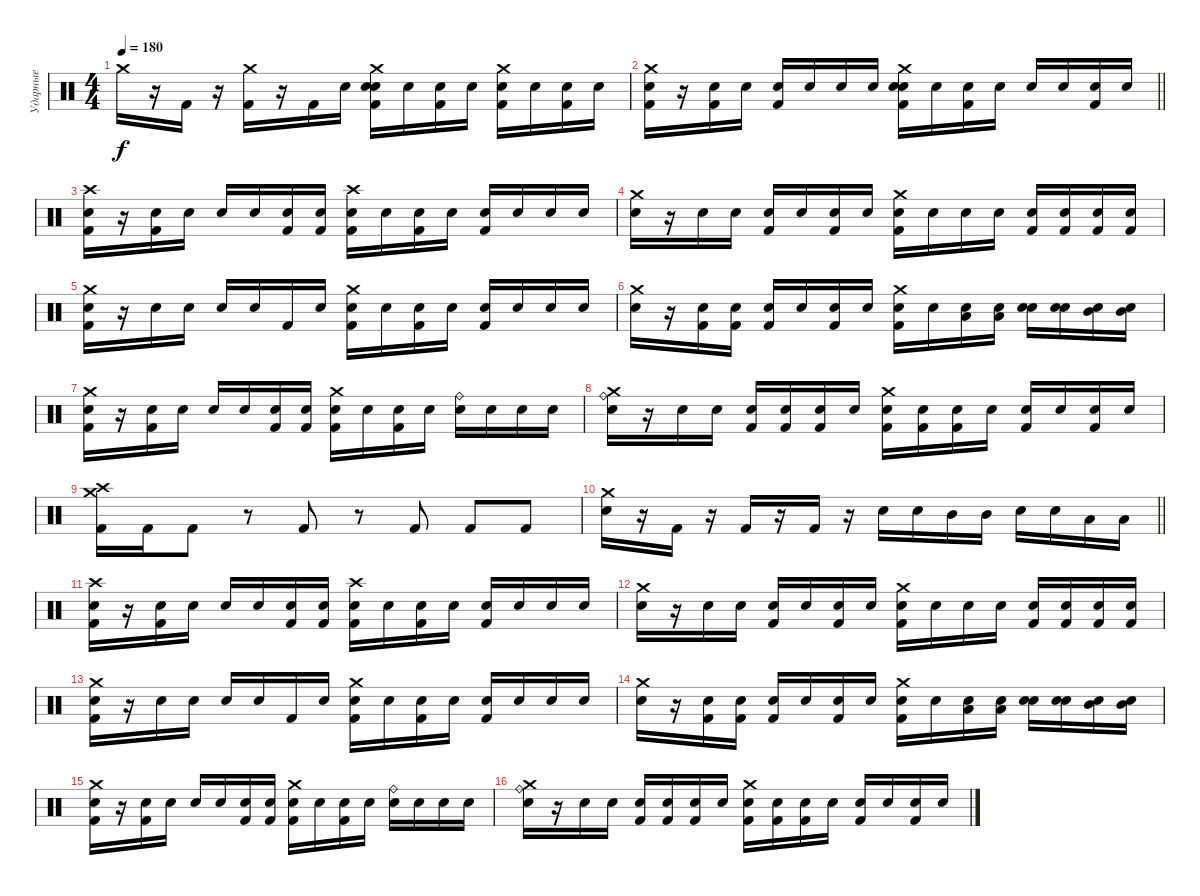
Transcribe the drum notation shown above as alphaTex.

\track ("Ударные" "Ударные") {instrument percussion}
\staff {score}
\articulation defaults
\ts (4 4)
\tempo 180
\clef neutral
\ks c "Crash medium (hit)".16{dy f}
r.16 "Kick (hit) 2".16 r.16 ("Crash medium (hit)" "Kick (hit) 2").16 r.16 "Kick (hit) 2".16 "Snare (hit)".16 ("Crash medium (hit)" "Electric Snare (hit)" "Snare (hit)" "Kick (hit) 2").16 "Snare (hit)".16 ("Snare (hit)" "Kick (hit) 2").16 "Snare (hit)".16 ("Crash medium (hit)" "Snare (hit)" "Kick (hit) 2").16 "Snare (hit)".16 ("Snare (hit)" "Kick (hit) 2").16 "Snare (hit)".16 |
\barLineRight lightlight
("Crash medium (hit)" "Snare (hit)" "Kick (hit) 2").16 r.16 ("Snare (hit)" "Kick (hit) 2").16 "Snare (hit)".16 ("Snare (hit)" "Kick (hit) 2").16 "Snare (hit)".16 "Snare (hit)".16 "Snare (hit)".16 ("Crash medium (hit)" "Electric Snare (hit)" "Snare (hit)" "Kick (hit) 2").16 "Snare (hit)".16 ("Snare (hit)" "Kick (hit) 2").16 "Snare (hit)".16 "Snare (hit)".16 "Snare (hit)".16 ("Snare (hit)" "Kick (hit) 2").16 "Snare (hit)".16 |
("Crash high (hit)" "Snare (hit)" "Kick (hit) 2").16 r.16 ("Snare (hit)" "Kick (hit) 2").16 "Snare (hit)".16 "Snare (hit)".16 "Snare (hit)".16 ("Snare (hit)" "Kick (hit) 2").16 ("Snare (hit)" "Kick (hit) 2").16 ("Crash high (hit)" "Snare (hit)" "Kick (hit) 2").16 "Snare (hit)".16 ("Snare (hit)" "Kick (hit) 2").16 "Snare (hit)".16 ("Snare (hit)" "Kick (hit) 2").16 "Snare (hit)".16 "Snare (hit)".16 "Snare (hit)".16 |
("Crash medium (hit)" "Electric Snare (hit)").16 r.16 "Snare (hit)".16 "Snare (hit)".16 ("Snare (hit)" "Kick (hit) 2").16 "Snare (hit)".16 ("Snare (hit)" "Kick (hit) 2").16 "Snare (hit)".16 ("Crash medium (hit)" "Snare (hit)" "Kick (hit) 2").16 "Snare (hit)".16 "Snare (hit)".16 "Snare (hit)".16 ("Snare (hit)" "Kick (hit) 2").16 ("Snare (hit)" "Kick (hit) 2").16 ("Snare (hit)" "Kick (hit) 2").16 ("Snare (hit)" "Kick (hit) 2").16 |
("Crash medium (hit)" "Snare (hit)" "Kick (hit) 2").16 r.16 "Snare (hit)".16 "Snare (hit)".16 "Snare (hit)".16 "Snare (hit)".16 "Kick (hit) 2".16 "Snare (hit)".16 ("Crash medium (hit)" "Snare (hit)" "Kick (hit) 2").16 "Snare (hit)".16 ("Snare (hit)" "Kick (hit) 2").16 "Snare (hit)".16 ("Snare (hit)" "Kick (hit) 2").16 "Snare (hit)".16 "Snare (hit)".16 "Snare (hit)".16 |
("Crash medium (hit)" "Electric Snare (hit)").16 r.16 ("Snare (hit)" "Kick (hit) 2").16 ("Snare (hit)" "Kick (hit) 2").16 ("Snare (hit)" "Kick (hit) 2").16 "Snare (hit)".16 ("Snare (hit)" "Kick (hit) 2").16 "Snare (hit)".16 ("Crash medium (hit)" "Snare (hit)" "Kick (hit) 2").16 "Snare (hit)".16 ("Low Tom (hit)" "Snare (hit)").16 ("Low Tom (hit)" "Snare (hit)").16 ("Electric Snare (hit)" "Snare (hit)").16 ("Electric Snare (hit)" "Snare (hit)").16 ("Mid Tom (hit)" "Snare (hit)").16 ("Mid Tom (hit)" "Snare (hit)").16 |
("Crash medium (hit)" "Snare (hit)" "Kick (hit) 2").16 r.16 ("Snare (hit)" "Kick (hit) 2").16 "Snare (hit)".16 "Snare (hit)".16 "Snare (hit)".16 ("Snare (hit)" "Kick (hit) 2").16 ("Snare (hit)" "Kick (hit) 2").16 ("Crash medium (hit)" "Snare (hit)" "Kick (hit) 2").16 "Snare (hit)".16 ("Snare (hit)" "Kick (hit) 2").16 "Snare (hit)".16 ("Ride (bell)" "Snare (hit)").16 "Snare (hit)".16 "Snare (hit)".16 "Snare (hit)".16 |
("Crash medium (hit)" "Ride (bell)" "Electric Snare (hit)").16 r.16 "Snare (hit)".16 "Snare (hit)".16 ("Snare (hit)" "Kick (hit) 2").16 ("Snare (hit)" "Kick (hit) 2").16 ("Snare (hit)" "Kick (hit) 2").16 "Snare (hit)".16 ("Crash medium (hit)" "Snare (hit)" "Kick (hit) 2").16 ("Snare (hit)" "Kick (hit) 2").16 ("Snare (hit)" "Kick (hit) 2").16 "Snare (hit)".16 ("Snare (hit)" "Kick (hit) 2").16 "Snare (hit)".16 ("Snare (hit)" "Kick (hit) 2").16 "Snare (hit)".16 |
("Crash high (hit)" "Crash medium (hit)" "Kick (hit) 2").16 "Kick (hit) 2".16 "Kick (hit) 2".8 r.8 "Kick (hit) 2".8 r.8 "Kick (hit) 2".8 "Kick (hit) 2".8 "Kick (hit) 2".8 |
\barLineRight lightlight
("Crash medium (hit)" "Electric Snare (hit)").16 r.16 "Kick (hit) 2".16 r.16 "Kick (hit) 2".16 r.16 "Kick (hit) 2".16 r.16 "Electric Snare (hit)".16 "Electric Snare (hit)".16 "Mid Tom (hit)".16 "Mid Tom (hit)".16 "Electric Snare (hit)".16 "Electric Snare (hit)".16 "Low Tom (hit)".16 "Low Tom (hit)".16 |
("Crash high (hit)" "Snare (hit)" "Kick (hit) 2").16 r.16 ("Snare (hit)" "Kick (hit) 2").16 "Snare (hit)".16 "Snare (hit)".16 "Snare (hit)".16 ("Snare (hit)" "Kick (hit) 2").16 ("Snare (hit)" "Kick (hit) 2").16 ("Crash high (hit)" "Snare (hit)" "Kick (hit) 2").16 "Snare (hit)".16 ("Snare (hit)" "Kick (hit) 2").16 "Snare (hit)".16 ("Snare (hit)" "Kick (hit) 2").16 "Snare (hit)".16 "Snare (hit)".16 "Snare (hit)".16 |
("Crash medium (hit)" "Electric Snare (hit)").16 r.16 "Snare (hit)".16 "Snare (hit)".16 ("Snare (hit)" "Kick (hit) 2").16 "Snare (hit)".16 ("Snare (hit)" "Kick (hit) 2").16 "Snare (hit)".16 ("Crash medium (hit)" "Snare (hit)" "Kick (hit) 2").16 "Snare (hit)".16 "Snare (hit)".16 "Snare (hit)".16 ("Snare (hit)" "Kick (hit) 2").16 ("Snare (hit)" "Kick (hit) 2").16 ("Snare (hit)" "Kick (hit) 2").16 ("Snare (hit)" "Kick (hit) 2").16 |
("Crash medium (hit)" "Snare (hit)" "Kick (hit) 2").16 r.16 "Snare (hit)".16 "Snare (hit)".16 "Snare (hit)".16 "Snare (hit)".16 "Kick (hit) 2".16 "Snare (hit)".16 ("Crash medium (hit)" "Snare (hit)" "Kick (hit) 2").16 "Snare (hit)".16 ("Snare (hit)" "Kick (hit) 2").16 "Snare (hit)".16 ("Snare (hit)" "Kick (hit) 2").16 "Snare (hit)".16 "Snare (hit)".16 "Snare (hit)".16 |
("Crash medium (hit)" "Electric Snare (hit)").16 r.16 ("Snare (hit)" "Kick (hit) 2").16 ("Snare (hit)" "Kick (hit) 2").16 ("Snare (hit)" "Kick (hit) 2").16 "Snare (hit)".16 ("Snare (hit)" "Kick (hit) 2").16 "Snare (hit)".16 ("Crash medium (hit)" "Snare (hit)" "Kick (hit) 2").16 "Snare (hit)".16 ("Low Tom (hit)" "Snare (hit)").16 ("Low Tom (hit)" "Snare (hit)").16 ("Electric Snare (hit)" "Snare (hit)").16 ("Electric Snare (hit)" "Snare (hit)").16 ("Mid Tom (hit)" "Snare (hit)").16 ("Mid Tom (hit)" "Snare (hit)").16 |
("Crash medium (hit)" "Snare (hit)" "Kick (hit) 2").16 r.16 ("Snare (hit)" "Kick (hit) 2").16 "Snare (hit)".16 "Snare (hit)".16 "Snare (hit)".16 ("Snare (hit)" "Kick (hit) 2").16 ("Snare (hit)" "Kick (hit) 2").16 ("Crash medium (hit)" "Snare (hit)" "Kick (hit) 2").16 "Snare (hit)".16 ("Snare (hit)" "Kick (hit) 2").16 "Snare (hit)".16 ("Ride (bell)" "Snare (hit)").16 "Snare (hit)".16 "Snare (hit)".16 "Snare (hit)".16 |
("Crash medium (hit)" "Ride (bell)" "Electric Snare (hit)").16 r.16 "Snare (hit)".16 "Snare (hit)".16 ("Snare (hit)" "Kick (hit) 2").16 ("Snare (hit)" "Kick (hit) 2").16 ("Snare (hit)" "Kick (hit) 2").16 "Snare (hit)".16 ("Crash medium (hit)" "Snare (hit)" "Kick (hit) 2").16 ("Snare (hit)" "Kick (hit) 2").16 ("Snare (hit)" "Kick (hit) 2").16 "Snare (hit)".16 ("Snare (hit)" "Kick (hit) 2").16 "Snare (hit)".16 ("Snare (hit)" "Kick (hit) 2").16 "Snare (hit)".16
